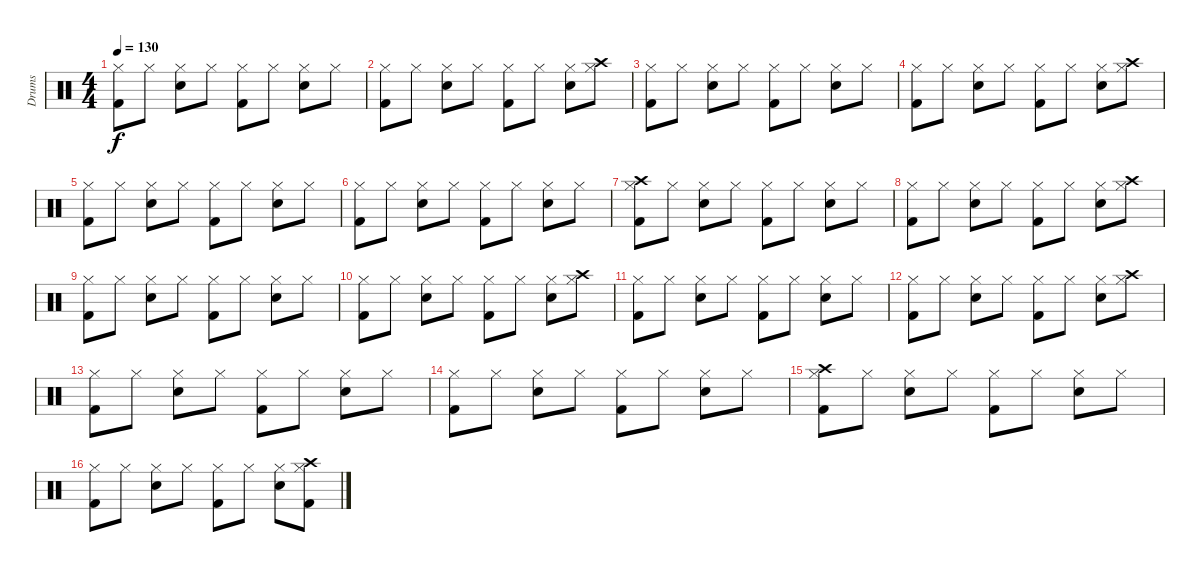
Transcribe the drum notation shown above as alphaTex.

\track ("Drums" "Drums") {instrument percussion}
\staff {score}
\articulation defaults
\ts (4 4)
\tempo 130
\clef neutral
\ks c
("Kick (hit) 2" "Hi-Hat (closed)").8{dy f} "Hi-Hat (closed)".8 ("Snare (hit) 2" "Hi-Hat (closed)").8 "Hi-Hat (closed)".8 ("Kick (hit) 2" "Hi-Hat (closed)").8 "Hi-Hat (closed)".8 ("Snare (hit) 2" "Hi-Hat (closed)").8 "Hi-Hat (closed)".8 |
("Kick (hit) 2" "Hi-Hat (closed)").8 "Hi-Hat (closed)".8 ("Snare (hit) 2" "Hi-Hat (closed)").8 "Hi-Hat (closed)".8 ("Kick (hit) 2" "Hi-Hat (closed)").8 "Hi-Hat (closed)".8 ("Snare (hit) 2" "Hi-Hat (closed)").8 ("Hi-Hat (closed)" "Crash high (hit)").8 |
("Kick (hit) 2" "Hi-Hat (closed)").8 "Hi-Hat (closed)".8 ("Snare (hit) 2" "Hi-Hat (closed)").8 "Hi-Hat (closed)".8 ("Kick (hit) 2" "Hi-Hat (closed)").8 "Hi-Hat (closed)".8 ("Snare (hit) 2" "Hi-Hat (closed)").8 "Hi-Hat (closed)".8 |
("Kick (hit) 2" "Hi-Hat (closed)").8 "Hi-Hat (closed)".8 ("Snare (hit) 2" "Hi-Hat (closed)").8 "Hi-Hat (closed)".8 ("Kick (hit) 2" "Hi-Hat (closed)").8 "Hi-Hat (closed)".8 ("Snare (hit) 2" "Hi-Hat (closed)").8 ("Hi-Hat (closed)" "Crash high (hit)").8 |
("Kick (hit) 2" "Hi-Hat (closed)").8 "Hi-Hat (closed)".8 ("Snare (hit) 2" "Hi-Hat (closed)").8 "Hi-Hat (closed)".8 ("Kick (hit) 2" "Hi-Hat (closed)").8 "Hi-Hat (closed)".8 ("Snare (hit) 2" "Hi-Hat (closed)").8 "Hi-Hat (closed)".8 |
("Kick (hit) 2" "Hi-Hat (closed)").8 "Hi-Hat (closed)".8 ("Snare (hit) 2" "Hi-Hat (closed)").8 "Hi-Hat (closed)".8 ("Kick (hit) 2" "Hi-Hat (closed)").8 "Hi-Hat (closed)".8 ("Snare (hit) 2" "Hi-Hat (closed)").8 "Hi-Hat (closed)".8 |
("Kick (hit) 2" "Hi-Hat (closed)" "Crash high (hit)").8 "Hi-Hat (closed)".8 ("Snare (hit) 2" "Hi-Hat (closed)").8 "Hi-Hat (closed)".8 ("Kick (hit) 2" "Hi-Hat (closed)").8 "Hi-Hat (closed)".8 ("Snare (hit) 2" "Hi-Hat (closed)").8 "Hi-Hat (closed)".8 |
("Kick (hit) 2" "Hi-Hat (closed)").8 "Hi-Hat (closed)".8 ("Snare (hit) 2" "Hi-Hat (closed)").8 "Hi-Hat (closed)".8 ("Kick (hit) 2" "Hi-Hat (closed)").8 "Hi-Hat (closed)".8 ("Snare (hit) 2" "Hi-Hat (closed)").8 ("Hi-Hat (closed)" "Crash high (hit)").8 |
("Kick (hit) 2" "Hi-Hat (closed)").8 "Hi-Hat (closed)".8 ("Snare (hit) 2" "Hi-Hat (closed)").8 "Hi-Hat (closed)".8 ("Kick (hit) 2" "Hi-Hat (closed)").8 "Hi-Hat (closed)".8 ("Snare (hit) 2" "Hi-Hat (closed)").8 "Hi-Hat (closed)".8 |
("Kick (hit) 2" "Hi-Hat (closed)").8 "Hi-Hat (closed)".8 ("Snare (hit) 2" "Hi-Hat (closed)").8 "Hi-Hat (closed)".8 ("Kick (hit) 2" "Hi-Hat (closed)").8 "Hi-Hat (closed)".8 ("Snare (hit) 2" "Hi-Hat (closed)").8 ("Hi-Hat (closed)" "Crash high (hit)").8 |
("Kick (hit) 2" "Hi-Hat (closed)").8 "Hi-Hat (closed)".8 ("Snare (hit) 2" "Hi-Hat (closed)").8 "Hi-Hat (closed)".8 ("Kick (hit) 2" "Hi-Hat (closed)").8 "Hi-Hat (closed)".8 ("Snare (hit) 2" "Hi-Hat (closed)").8 "Hi-Hat (closed)".8 |
("Kick (hit) 2" "Hi-Hat (closed)").8 "Hi-Hat (closed)".8 ("Snare (hit) 2" "Hi-Hat (closed)").8 "Hi-Hat (closed)".8 ("Kick (hit) 2" "Hi-Hat (closed)").8 "Hi-Hat (closed)".8 ("Snare (hit) 2" "Hi-Hat (closed)").8 ("Hi-Hat (closed)" "Crash high (hit)").8 |
("Kick (hit) 2" "Hi-Hat (closed)").8 "Hi-Hat (closed)".8 ("Snare (hit) 2" "Hi-Hat (closed)").8 "Hi-Hat (closed)".8 ("Kick (hit) 2" "Hi-Hat (closed)").8 "Hi-Hat (closed)".8 ("Snare (hit) 2" "Hi-Hat (closed)").8 "Hi-Hat (closed)".8 |
("Kick (hit) 2" "Hi-Hat (closed)").8 "Hi-Hat (closed)".8 ("Snare (hit) 2" "Hi-Hat (closed)").8 "Hi-Hat (closed)".8 ("Kick (hit) 2" "Hi-Hat (closed)").8 "Hi-Hat (closed)".8 ("Snare (hit) 2" "Hi-Hat (closed)").8 "Hi-Hat (closed)".8 |
("Kick (hit) 2" "Hi-Hat (closed)" "Crash high (hit)").8 "Hi-Hat (closed)".8 ("Snare (hit) 2" "Hi-Hat (closed)").8 "Hi-Hat (closed)".8 ("Kick (hit) 2" "Hi-Hat (closed)").8 "Hi-Hat (closed)".8 ("Snare (hit) 2" "Hi-Hat (closed)").8 "Hi-Hat (closed)".8 |
("Kick (hit) 2" "Hi-Hat (closed)").8 "Hi-Hat (closed)".8 ("Snare (hit) 2" "Hi-Hat (closed)").8 "Hi-Hat (closed)".8 ("Kick (hit) 2" "Hi-Hat (closed)").8 "Hi-Hat (closed)".8 ("Snare (hit) 2" "Hi-Hat (closed)").8 ("Kick (hit) 2" "Hi-Hat (closed)" "Crash high (hit)").8
